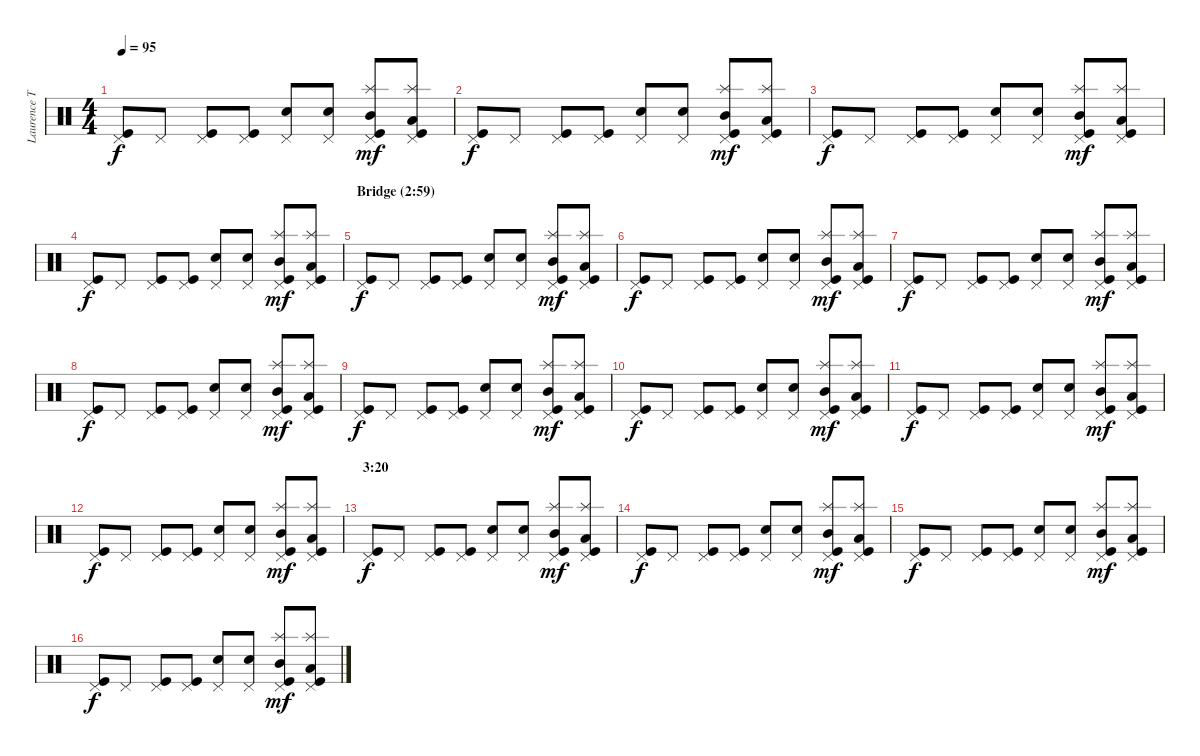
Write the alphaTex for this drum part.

\track ("Laurence Tolhurst (drums)" "Laurence T") {instrument percussion}
\staff {score}
\articulation defaults
\ts (4 4)
\tempo 95
\clef neutral
\ks c
("Pedal Hi-Hat (hit)" "Kick (hit)").8{dy f} "Pedal Hi-Hat (hit)".8 ("Pedal Hi-Hat (hit)" "Kick (hit)").8 ("Pedal Hi-Hat (hit)" "Kick (hit)").8 ("Pedal Hi-Hat (hit)" "Snare (hit) 2").8 ("Pedal Hi-Hat (hit)" "Snare (hit) 2").8 ("Splash (hit)" "Mid Tom (hit)" "Pedal Hi-Hat (hit)" "Kick (hit)").8{dy mf} ("Splash (hit)" "Low Tom (hit)" "Pedal Hi-Hat (hit)" "Kick (hit)").8 |
("Pedal Hi-Hat (hit)" "Kick (hit)").8{dy f} "Pedal Hi-Hat (hit)".8 ("Pedal Hi-Hat (hit)" "Kick (hit)").8 ("Pedal Hi-Hat (hit)" "Kick (hit)").8 ("Pedal Hi-Hat (hit)" "Snare (hit) 2").8 ("Pedal Hi-Hat (hit)" "Snare (hit) 2").8 ("Splash (hit)" "Mid Tom (hit)" "Pedal Hi-Hat (hit)" "Kick (hit)").8{dy mf} ("Splash (hit)" "Low Tom (hit)" "Pedal Hi-Hat (hit)" "Kick (hit)").8 |
("Pedal Hi-Hat (hit)" "Kick (hit)").8{dy f} "Pedal Hi-Hat (hit)".8 ("Pedal Hi-Hat (hit)" "Kick (hit)").8 ("Pedal Hi-Hat (hit)" "Kick (hit)").8 ("Pedal Hi-Hat (hit)" "Snare (hit) 2").8 ("Pedal Hi-Hat (hit)" "Snare (hit) 2").8 ("Splash (hit)" "Mid Tom (hit)" "Pedal Hi-Hat (hit)" "Kick (hit)").8{dy mf} ("Splash (hit)" "Low Tom (hit)" "Pedal Hi-Hat (hit)" "Kick (hit)").8 |
("Pedal Hi-Hat (hit)" "Kick (hit)").8{dy f} "Pedal Hi-Hat (hit)".8 ("Pedal Hi-Hat (hit)" "Kick (hit)").8 ("Pedal Hi-Hat (hit)" "Kick (hit)").8 ("Pedal Hi-Hat (hit)" "Snare (hit) 2").8 ("Pedal Hi-Hat (hit)" "Snare (hit) 2").8 ("Splash (hit)" "Mid Tom (hit)" "Pedal Hi-Hat (hit)" "Kick (hit)").8{dy mf} ("Splash (hit)" "Low Tom (hit)" "Pedal Hi-Hat (hit)" "Kick (hit)").8 |
\section ("" "Bridge (2:59)")
("Pedal Hi-Hat (hit)" "Kick (hit)").8{dy f} "Pedal Hi-Hat (hit)".8 ("Pedal Hi-Hat (hit)" "Kick (hit)").8 ("Pedal Hi-Hat (hit)" "Kick (hit)").8 ("Pedal Hi-Hat (hit)" "Snare (hit) 2").8 ("Pedal Hi-Hat (hit)" "Snare (hit) 2").8 ("Splash (hit)" "Mid Tom (hit)" "Pedal Hi-Hat (hit)" "Kick (hit)").8{dy mf} ("Splash (hit)" "Low Tom (hit)" "Pedal Hi-Hat (hit)" "Kick (hit)").8 |
("Pedal Hi-Hat (hit)" "Kick (hit)").8{dy f} "Pedal Hi-Hat (hit)".8 ("Pedal Hi-Hat (hit)" "Kick (hit)").8 ("Pedal Hi-Hat (hit)" "Kick (hit)").8 ("Pedal Hi-Hat (hit)" "Snare (hit) 2").8 ("Pedal Hi-Hat (hit)" "Snare (hit) 2").8 ("Splash (hit)" "Mid Tom (hit)" "Pedal Hi-Hat (hit)" "Kick (hit)").8{dy mf} ("Splash (hit)" "Low Tom (hit)" "Pedal Hi-Hat (hit)" "Kick (hit)").8 |
("Pedal Hi-Hat (hit)" "Kick (hit)").8{dy f} "Pedal Hi-Hat (hit)".8 ("Pedal Hi-Hat (hit)" "Kick (hit)").8 ("Pedal Hi-Hat (hit)" "Kick (hit)").8 ("Pedal Hi-Hat (hit)" "Snare (hit) 2").8 ("Pedal Hi-Hat (hit)" "Snare (hit) 2").8 ("Splash (hit)" "Mid Tom (hit)" "Pedal Hi-Hat (hit)" "Kick (hit)").8{dy mf} ("Splash (hit)" "Low Tom (hit)" "Pedal Hi-Hat (hit)" "Kick (hit)").8 |
("Pedal Hi-Hat (hit)" "Kick (hit)").8{dy f} "Pedal Hi-Hat (hit)".8 ("Pedal Hi-Hat (hit)" "Kick (hit)").8 ("Pedal Hi-Hat (hit)" "Kick (hit)").8 ("Pedal Hi-Hat (hit)" "Snare (hit) 2").8 ("Pedal Hi-Hat (hit)" "Snare (hit) 2").8 ("Splash (hit)" "Mid Tom (hit)" "Pedal Hi-Hat (hit)" "Kick (hit)").8{dy mf} ("Splash (hit)" "Low Tom (hit)" "Pedal Hi-Hat (hit)" "Kick (hit)").8 |
("Pedal Hi-Hat (hit)" "Kick (hit)").8{dy f} "Pedal Hi-Hat (hit)".8 ("Pedal Hi-Hat (hit)" "Kick (hit)").8 ("Pedal Hi-Hat (hit)" "Kick (hit)").8 ("Pedal Hi-Hat (hit)" "Snare (hit) 2").8 ("Pedal Hi-Hat (hit)" "Snare (hit) 2").8 ("Splash (hit)" "Mid Tom (hit)" "Pedal Hi-Hat (hit)" "Kick (hit)").8{dy mf} ("Splash (hit)" "Low Tom (hit)" "Pedal Hi-Hat (hit)" "Kick (hit)").8 |
("Pedal Hi-Hat (hit)" "Kick (hit)").8{dy f} "Pedal Hi-Hat (hit)".8 ("Pedal Hi-Hat (hit)" "Kick (hit)").8 ("Pedal Hi-Hat (hit)" "Kick (hit)").8 ("Pedal Hi-Hat (hit)" "Snare (hit) 2").8 ("Pedal Hi-Hat (hit)" "Snare (hit) 2").8 ("Splash (hit)" "Mid Tom (hit)" "Pedal Hi-Hat (hit)" "Kick (hit)").8{dy mf} ("Splash (hit)" "Low Tom (hit)" "Pedal Hi-Hat (hit)" "Kick (hit)").8 |
("Pedal Hi-Hat (hit)" "Kick (hit)").8{dy f} "Pedal Hi-Hat (hit)".8 ("Pedal Hi-Hat (hit)" "Kick (hit)").8 ("Pedal Hi-Hat (hit)" "Kick (hit)").8 ("Pedal Hi-Hat (hit)" "Snare (hit) 2").8 ("Pedal Hi-Hat (hit)" "Snare (hit) 2").8 ("Splash (hit)" "Mid Tom (hit)" "Pedal Hi-Hat (hit)" "Kick (hit)").8{dy mf} ("Splash (hit)" "Low Tom (hit)" "Pedal Hi-Hat (hit)" "Kick (hit)").8 |
("Pedal Hi-Hat (hit)" "Kick (hit)").8{dy f} "Pedal Hi-Hat (hit)".8 ("Pedal Hi-Hat (hit)" "Kick (hit)").8 ("Pedal Hi-Hat (hit)" "Kick (hit)").8 ("Pedal Hi-Hat (hit)" "Snare (hit) 2").8 ("Pedal Hi-Hat (hit)" "Snare (hit) 2").8 ("Splash (hit)" "Mid Tom (hit)" "Pedal Hi-Hat (hit)" "Kick (hit)").8{dy mf} ("Splash (hit)" "Low Tom (hit)" "Pedal Hi-Hat (hit)" "Kick (hit)").8 |
\section ("" "3:20")
("Pedal Hi-Hat (hit)" "Kick (hit)").8{dy f} "Pedal Hi-Hat (hit)".8 ("Pedal Hi-Hat (hit)" "Kick (hit)").8 ("Pedal Hi-Hat (hit)" "Kick (hit)").8 ("Pedal Hi-Hat (hit)" "Snare (hit) 2").8 ("Pedal Hi-Hat (hit)" "Snare (hit) 2").8 ("Splash (hit)" "Mid Tom (hit)" "Pedal Hi-Hat (hit)" "Kick (hit)").8{dy mf} ("Splash (hit)" "Low Tom (hit)" "Pedal Hi-Hat (hit)" "Kick (hit)").8 |
("Pedal Hi-Hat (hit)" "Kick (hit)").8{dy f} "Pedal Hi-Hat (hit)".8 ("Pedal Hi-Hat (hit)" "Kick (hit)").8 ("Pedal Hi-Hat (hit)" "Kick (hit)").8 ("Pedal Hi-Hat (hit)" "Snare (hit) 2").8 ("Pedal Hi-Hat (hit)" "Snare (hit) 2").8 ("Splash (hit)" "Mid Tom (hit)" "Pedal Hi-Hat (hit)" "Kick (hit)").8{dy mf} ("Splash (hit)" "Low Tom (hit)" "Pedal Hi-Hat (hit)" "Kick (hit)").8 |
("Pedal Hi-Hat (hit)" "Kick (hit)").8{dy f} "Pedal Hi-Hat (hit)".8 ("Pedal Hi-Hat (hit)" "Kick (hit)").8 ("Pedal Hi-Hat (hit)" "Kick (hit)").8 ("Pedal Hi-Hat (hit)" "Snare (hit) 2").8 ("Pedal Hi-Hat (hit)" "Snare (hit) 2").8 ("Splash (hit)" "Mid Tom (hit)" "Pedal Hi-Hat (hit)" "Kick (hit)").8{dy mf} ("Splash (hit)" "Low Tom (hit)" "Pedal Hi-Hat (hit)" "Kick (hit)").8 |
("Pedal Hi-Hat (hit)" "Kick (hit)").8{dy f} "Pedal Hi-Hat (hit)".8 ("Pedal Hi-Hat (hit)" "Kick (hit)").8 ("Pedal Hi-Hat (hit)" "Kick (hit)").8 ("Pedal Hi-Hat (hit)" "Snare (hit) 2").8 ("Pedal Hi-Hat (hit)" "Snare (hit) 2").8 ("Splash (hit)" "Mid Tom (hit)" "Pedal Hi-Hat (hit)" "Kick (hit)").8{dy mf} ("Splash (hit)" "Low Tom (hit)" "Pedal Hi-Hat (hit)" "Kick (hit)").8
